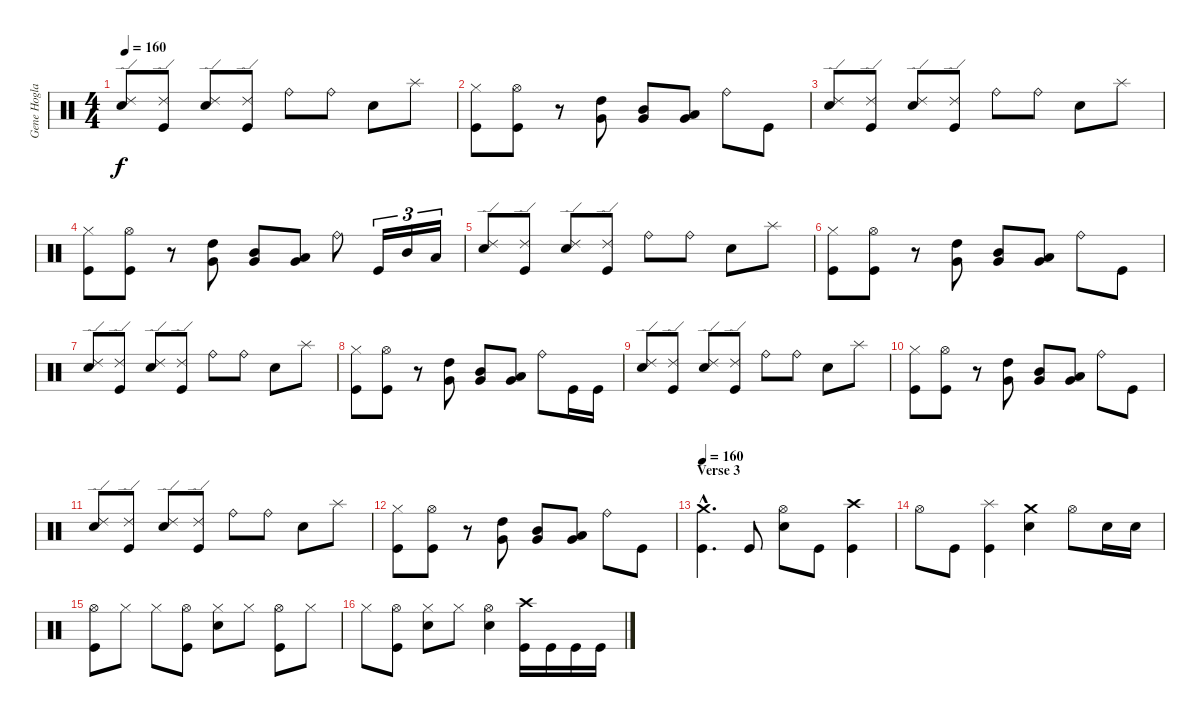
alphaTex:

\track ("Gene Hoglan" "Gene Hogla") {instrument percussion}
\staff {score}
\articulation defaults
\ts (4 4)
\tempo 160
\clef neutral
\ks c
("Ride (edge) 2" "Electric Snare (hit)").8{dy f} ("Ride (edge) 2" "Kick (hit)").8 ("Ride (edge) 2" "Electric Snare (hit)").8 ("Ride (edge) 2" "Kick (hit)").8 "Ride (bell)".8 "Ride (bell)".8 "Electric Snare (hit)".8 "Splash (hit)".8 |
("Hi-Hat (closed)" "Kick (hit)").8 ("Hi-Hat (open)" "Kick (hit)").8 r.8 ("High Tom (hit)" "Very Low Tom (hit)").8 ("Mid Tom (hit)" "Very Low Tom (hit)").8 ("Low Tom (hit)" "Very Low Tom (hit)").8 "Ride (bell)".8 "Kick (hit)".8 |
("Ride (edge) 2" "Electric Snare (hit)").8 ("Ride (edge) 2" "Kick (hit)").8 ("Ride (edge) 2" "Electric Snare (hit)").8 ("Ride (edge) 2" "Kick (hit)").8 "Ride (bell)".8 "Ride (bell)".8 "Electric Snare (hit)".8 "Splash (hit)".8 |
("Hi-Hat (closed)" "Kick (hit)").8 ("Hi-Hat (open)" "Kick (hit)").8 r.8 ("High Tom (hit)" "Very Low Tom (hit)").8 ("Mid Tom (hit)" "Very Low Tom (hit)").8 ("Low Tom (hit)" "Very Low Tom (hit)").8 "Ride (bell)".8 "Kick (hit)".16{tu (3 2)} "Mid Tom (hit)".16{tu (3 2)} "Low Tom (hit)".16{tu (3 2)} |
("Ride (edge) 2" "Electric Snare (hit)").8 ("Ride (edge) 2" "Kick (hit)").8 ("Ride (edge) 2" "Electric Snare (hit)").8 ("Ride (edge) 2" "Kick (hit)").8 "Ride (bell)".8 "Ride (bell)".8 "Electric Snare (hit)".8 "Splash (hit)".8 |
("Hi-Hat (closed)" "Kick (hit)").8 ("Hi-Hat (open)" "Kick (hit)").8 r.8 ("High Tom (hit)" "Very Low Tom (hit)").8 ("Mid Tom (hit)" "Very Low Tom (hit)").8 ("Low Tom (hit)" "Very Low Tom (hit)").8 "Ride (bell)".8 "Kick (hit)".8 |
("Ride (edge) 2" "Electric Snare (hit)").8 ("Ride (edge) 2" "Kick (hit)").8 ("Ride (edge) 2" "Electric Snare (hit)").8 ("Ride (edge) 2" "Kick (hit)").8 "Ride (bell)".8 "Ride (bell)".8 "Electric Snare (hit)".8 "Splash (hit)".8 |
("Hi-Hat (closed)" "Kick (hit)").8 ("Hi-Hat (open)" "Kick (hit)").8 r.8 ("High Tom (hit)" "Very Low Tom (hit)").8 ("Mid Tom (hit)" "Very Low Tom (hit)").8 ("Low Tom (hit)" "Very Low Tom (hit)").8 "Ride (bell)".8 "Kick (hit)".16 "Kick (hit)".16 |
("Ride (edge) 2" "Electric Snare (hit)").8 ("Ride (edge) 2" "Kick (hit)").8 ("Ride (edge) 2" "Electric Snare (hit)").8 ("Ride (edge) 2" "Kick (hit)").8 "Ride (bell)".8 "Ride (bell)".8 "Electric Snare (hit)".8 "Splash (hit)".8 |
("Hi-Hat (closed)" "Kick (hit)").8 ("Hi-Hat (open)" "Kick (hit)").8 r.8 ("High Tom (hit)" "Very Low Tom (hit)").8 ("Mid Tom (hit)" "Very Low Tom (hit)").8 ("Low Tom (hit)" "Very Low Tom (hit)").8 "Ride (bell)".8 "Kick (hit)".8 |
("Ride (edge) 2" "Electric Snare (hit)").8 ("Ride (edge) 2" "Kick (hit)").8 ("Ride (edge) 2" "Electric Snare (hit)").8 ("Ride (edge) 2" "Kick (hit)").8 "Ride (bell)".8 "Ride (bell)".8 "Electric Snare (hit)".8 "Splash (hit)".8 |
("Hi-Hat (closed)" "Kick (hit)").8 ("Hi-Hat (open)" "Kick (hit)").8 r.8 ("High Tom (hit)" "Very Low Tom (hit)").8 ("Mid Tom (hit)" "Very Low Tom (hit)").8 ("Low Tom (hit)" "Very Low Tom (hit)").8 "Ride (bell)".8 "Kick (hit)".8 |
\section ("" "Verse 3")
\tempo 160
("Crash medium (hit)"{hac} "Kick (hit)"{hac}).4{d} "Kick (hit)".8 ("Hi-Hat (open)" "Electric Snare (hit)").8 "Kick (hit)".8 ("Crash high (hit)" "Kick (hit)").4 |
"Hi-Hat (open)".8 "Kick (hit)".8 ("Splash (hit)" "Kick (hit)").4 ("Crash medium (hit)" "Electric Snare (hit)").4 "Hi-Hat (open)".8 "Electric Snare (hit)".16 "Electric Snare (hit)".16 |
("Hi-Hat (open)" "Kick (hit)").8 "Hi-Hat (closed)".8 "Hi-Hat (closed)".8 ("Hi-Hat (open)" "Kick (hit)").8 ("Hi-Hat (closed)" "Electric Snare (hit)").8 "Hi-Hat (closed)".8 ("Hi-Hat (open)" "Kick (hit)").8 "Hi-Hat (closed)".8 |
"Hi-Hat (closed)".8 ("Hi-Hat (open)" "Kick (hit)").8 ("Hi-Hat (closed)" "Electric Snare (hit)").8 "Hi-Hat (closed)".8 ("Hi-Hat (open)" "Electric Snare (hit)").4 ("Crash high (hit)" "Kick (hit)").16 "Kick (hit)".16 "Kick (hit)".16 "Kick (hit)".16
